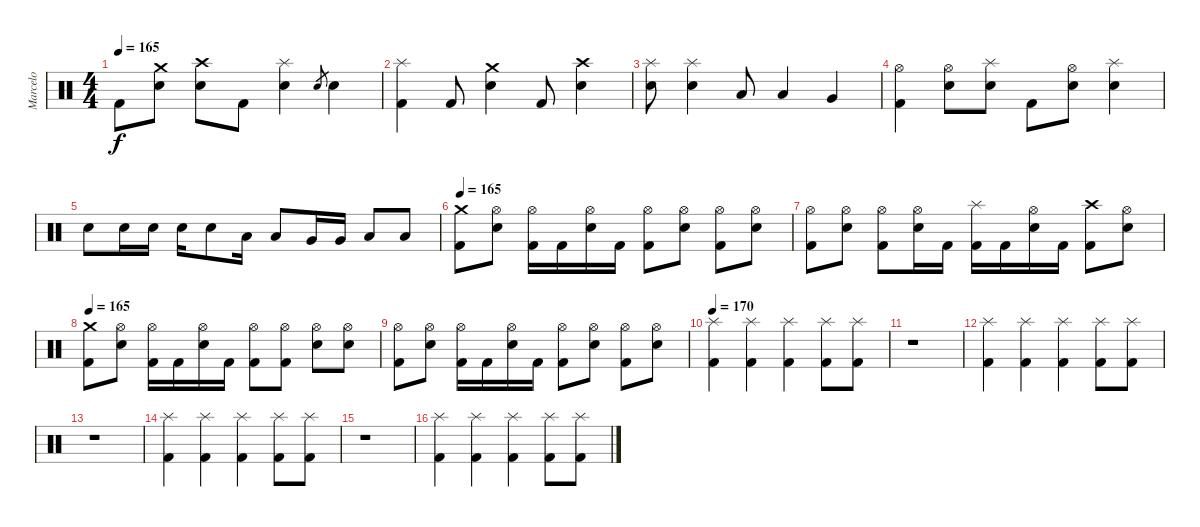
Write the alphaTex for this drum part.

\track ("Marcelo" "Marcelo") {instrument percussion}
\staff {score}
\articulation defaults
\ts (4 4)
\tempo 165
\clef neutral
\ks c "Kick (hit) 2".8{dy f}
("Crash medium (hit)" "Electric Snare (hit)").8 ("Crash high (hit)" "Electric Snare (hit)").8 "Kick (hit) 2".8 ("Splash (hit)" "Electric Snare (hit)").4 "Electric Snare (hit)".8{gr} "Electric Snare (hit)".4 |
("Splash (hit)" "Kick (hit) 2").4 "Kick (hit) 2".8 ("Crash medium (hit)" "Electric Snare (hit)").4 "Kick (hit) 2".8 ("Crash high (hit)" "Electric Snare (hit)").4 |
("Splash (hit)" "Electric Snare (hit)").8 ("Splash (hit)" "Electric Snare (hit)").4 "Low Tom (hit)".8 "Low Tom (hit)".4 "Very Low Tom (hit)".4 |
("Hi-Hat (open)" "Kick (hit) 2").4 ("Hi-Hat (open)" "Electric Snare (hit)").8 ("Splash (hit)" "Electric Snare (hit)").8 "Kick (hit) 2".8 ("Hi-Hat (open)" "Electric Snare (hit)").8 ("Splash (hit)" "Electric Snare (hit)").4 |
"Electric Snare (hit)".8 "Electric Snare (hit)".16 "Electric Snare (hit)".16 "Electric Snare (hit)".16 "Electric Snare (hit)".8 "Low Tom (hit)".16 "Low Tom (hit)".8 "Very Low Tom (hit)".16 "Very Low Tom (hit)".16 "Low Floor Tom (hit)".8 "Low Floor Tom (hit)".8 |
\tempo 165
("Crash medium (hit)" "Kick (hit) 2").8 ("Hi-Hat (open)" "Electric Snare (hit)").8 ("Hi-Hat (open)" "Kick (hit) 2").16 "Kick (hit) 2".16 ("Hi-Hat (open)" "Electric Snare (hit)").16 "Kick (hit) 2".16 ("Hi-Hat (open)" "Kick (hit) 2").8 ("Hi-Hat (open)" "Electric Snare (hit)").8 ("Hi-Hat (open)" "Kick (hit) 2").8 ("Hi-Hat (open)" "Electric Snare (hit)").8 |
("Hi-Hat (open)" "Kick (hit) 2").8 ("Hi-Hat (open)" "Electric Snare (hit)").8 ("Hi-Hat (open)" "Kick (hit) 2").8 ("Hi-Hat (open)" "Electric Snare (hit)").16 "Kick (hit) 2".16 ("Splash (hit)" "Kick (hit) 2").16 "Kick (hit) 2".16 ("Hi-Hat (open)" "Electric Snare (hit)").16 "Kick (hit) 2".16 ("Crash high (hit)" "Kick (hit) 2").8 ("Hi-Hat (open)" "Electric Snare (hit)").8 |
\tempo 165
("Crash medium (hit)" "Kick (hit) 2").8 ("Hi-Hat (open)" "Electric Snare (hit)").8 ("Hi-Hat (open)" "Kick (hit) 2").16 "Kick (hit) 2".16 ("Hi-Hat (open)" "Electric Snare (hit)").16 "Kick (hit) 2".16 ("Hi-Hat (open)" "Kick (hit) 2").8 ("Hi-Hat (open)" "Kick (hit) 2").8 ("Hi-Hat (open)" "Electric Snare (hit)").8 ("Hi-Hat (open)" "Electric Snare (hit)").8 |
("Hi-Hat (open)" "Kick (hit) 2").8 ("Hi-Hat (open)" "Electric Snare (hit)").8 ("Hi-Hat (open)" "Kick (hit) 2").16 "Kick (hit) 2".16 ("Hi-Hat (open)" "Electric Snare (hit)").16 "Kick (hit) 2".16 ("Hi-Hat (open)" "Kick (hit) 2").8 ("Hi-Hat (open)" "Electric Snare (hit)").8 ("Hi-Hat (open)" "Kick (hit) 2").8 ("Hi-Hat (open)" "Electric Snare (hit)").8 |
\tempo 170
("Splash (hit)" "Kick (hit) 2").4 ("Splash (hit)" "Kick (hit) 2").4 ("Splash (hit)" "Kick (hit) 2").4 ("Splash (hit)" "Kick (hit) 2").8 ("Splash (hit)" "Kick (hit) 2").8 |
r.1 |
("Splash (hit)" "Kick (hit) 2").4 ("Splash (hit)" "Kick (hit) 2").4 ("Splash (hit)" "Kick (hit) 2").4 ("Splash (hit)" "Kick (hit) 2").8 ("Splash (hit)" "Kick (hit) 2").8 |
r.1 |
("Splash (hit)" "Kick (hit) 2").4 ("Splash (hit)" "Kick (hit) 2").4 ("Splash (hit)" "Kick (hit) 2").4 ("Splash (hit)" "Kick (hit) 2").8 ("Splash (hit)" "Kick (hit) 2").8 |
r.1 |
("Splash (hit)" "Kick (hit) 2").4 ("Splash (hit)" "Kick (hit) 2").4 ("Splash (hit)" "Kick (hit) 2").4 ("Splash (hit)" "Kick (hit) 2").8 ("Splash (hit)" "Kick (hit) 2").8
